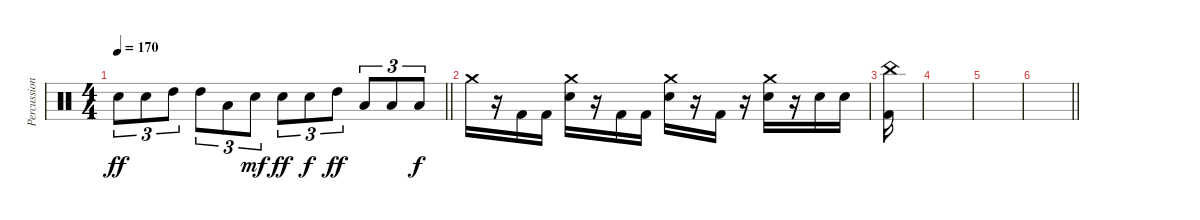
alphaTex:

\track ("Percussions" "Percussion") {instrument percussion}
\staff {score}
\articulation defaults
\ts (4 4)
\tempo 170
\clef neutral
\barLineRight lightlight
\ks c "Electric Snare (hit)".8{tu (3 2) dy ff} "Electric Snare (hit)".8{tu (3 2)} "High Tom (hit)".8{tu (3 2)} "High Tom (hit)".8{tu (3 2)} "Low Floor Tom (hit)".8{tu (3 2)} "Electric Snare (hit)".8{tu (3 2) dy mf} "Electric Snare (hit)".8{tu (3 2) dy ff} "Electric Snare (hit)".8{tu (3 2) dy f} "High Tom (hit)".8{tu (3 2) dy ff} "Low Floor Tom (hit)".8{tu (3 2)} "Low Floor Tom (hit)".8{tu (3 2)} "Low Floor Tom (hit)".8{tu (3 2) dy f}
|
"Crash medium (hit)".16 r.16 "Kick (hit) 2".16 "Kick (hit) 2".16 ("Crash medium (hit)" "Electric Snare (hit)").16 r.16 "Kick (hit) 2".16 "Kick (hit) 2".16 ("Crash medium (hit)" "Electric Snare (hit)").16 r.16 "Kick (hit) 2".16 r.16 ("Crash medium (hit)" "Electric Snare (hit)").16 r.16 "Electric Snare (hit)".16 "Electric Snare (hit)".16 |
("China (hit)" "Kick (hit) 2").16 |
|
|
\barLineRight lightlight
